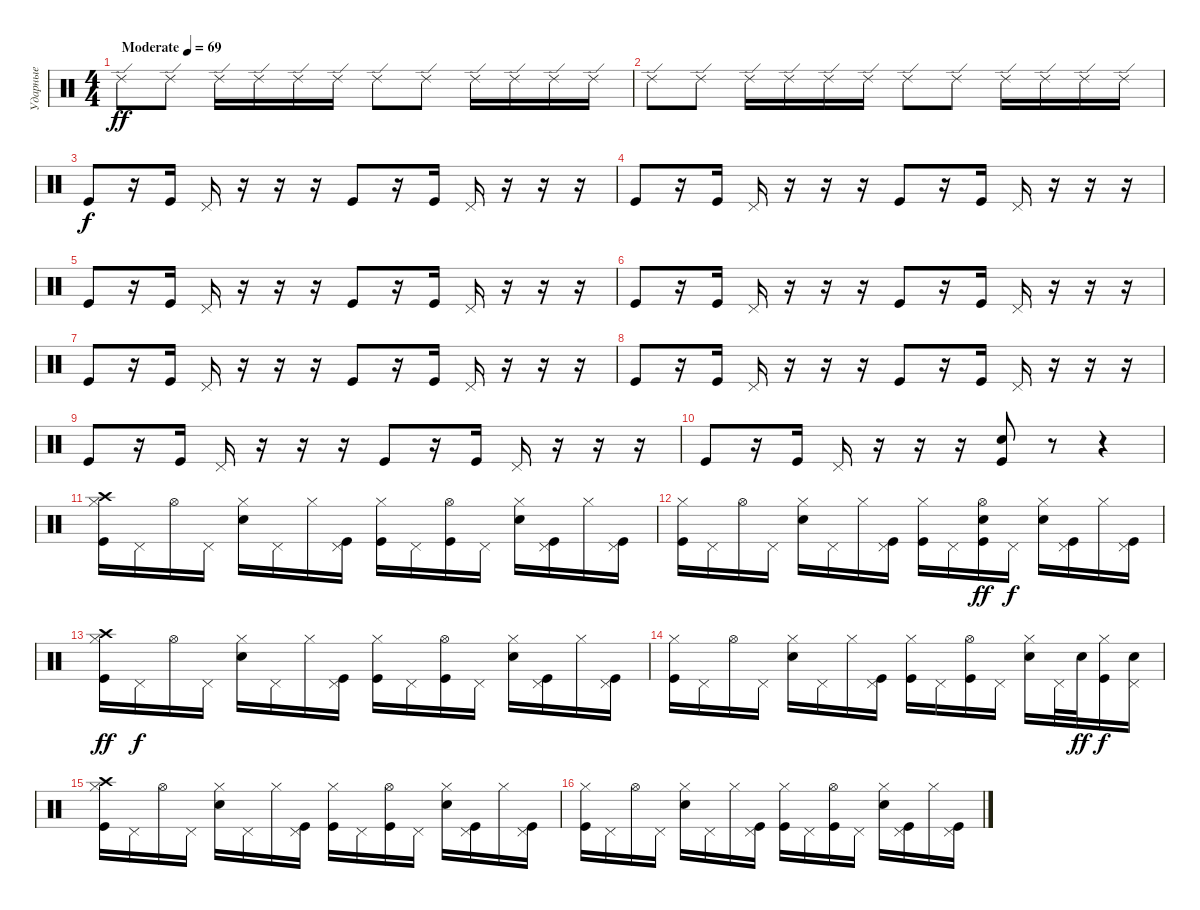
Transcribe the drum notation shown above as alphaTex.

\track ("Ударные" "Ударные") {instrument percussion}
\staff {score}
\articulation defaults
\ts (4 4)
\tempo (69 "Moderate")
\clef neutral
\ks c "Ride (edge) 2".8{dy ff} "Ride (edge) 2".8 "Ride (edge) 2".16 "Ride (edge) 2".16 "Ride (edge) 2".16 "Ride (edge) 2".16 "Ride (edge) 2".8 "Ride (edge) 2".8 "Ride (edge) 2".16 "Ride (edge) 2".16 "Ride (edge) 2".16 "Ride (edge) 2".16
|
"Ride (edge) 2".8 "Ride (edge) 2".8 "Ride (edge) 2".16 "Ride (edge) 2".16 "Ride (edge) 2".16 "Ride (edge) 2".16 "Ride (edge) 2".8 "Ride (edge) 2".8 "Ride (edge) 2".16 "Ride (edge) 2".16 "Ride (edge) 2".16 "Ride (edge) 2".16 |
"Kick (hit)".8{dy f} r.16 "Kick (hit)".16 "Pedal Hi-Hat (hit)".16 r.16 r.16 r.16 "Kick (hit)".8 r.16 "Kick (hit)".16 "Pedal Hi-Hat (hit)".16 r.16 r.16 r.16 |
"Kick (hit)".8 r.16 "Kick (hit)".16 "Pedal Hi-Hat (hit)".16 r.16 r.16 r.16 "Kick (hit)".8 r.16 "Kick (hit)".16 "Pedal Hi-Hat (hit)".16 r.16 r.16 r.16 |
"Kick (hit)".8 r.16 "Kick (hit)".16 "Pedal Hi-Hat (hit)".16 r.16 r.16 r.16 "Kick (hit)".8 r.16 "Kick (hit)".16 "Pedal Hi-Hat (hit)".16 r.16 r.16 r.16 |
"Kick (hit)".8 r.16 "Kick (hit)".16 "Pedal Hi-Hat (hit)".16 r.16 r.16 r.16 "Kick (hit)".8 r.16 "Kick (hit)".16 "Pedal Hi-Hat (hit)".16 r.16 r.16 r.16 |
"Kick (hit)".8 r.16 "Kick (hit)".16 "Pedal Hi-Hat (hit)".16 r.16 r.16 r.16 "Kick (hit)".8 r.16 "Kick (hit)".16 "Pedal Hi-Hat (hit)".16 r.16 r.16 r.16 |
"Kick (hit)".8 r.16 "Kick (hit)".16 "Pedal Hi-Hat (hit)".16 r.16 r.16 r.16 "Kick (hit)".8 r.16 "Kick (hit)".16 "Pedal Hi-Hat (hit)".16 r.16 r.16 r.16 |
"Kick (hit)".8 r.16 "Kick (hit)".16 "Pedal Hi-Hat (hit)".16 r.16 r.16 r.16 "Kick (hit)".8 r.16 "Kick (hit)".16 "Pedal Hi-Hat (hit)".16 r.16 r.16 r.16 |
"Kick (hit)".8 r.16 "Kick (hit)".16 "Pedal Hi-Hat (hit)".16 r.16 r.16 r.16 ("Snare (hit) 2" "Kick (hit)").8 r.8 r.4 |
("Kick (hit)" "Hi-Hat (closed)" "Crash high (hit)").16 "Pedal Hi-Hat (hit)".16 "Hi-Hat (open)".16 "Pedal Hi-Hat (hit)".16 ("Snare (hit) 2" "Hi-Hat (closed)").16 "Pedal Hi-Hat (hit)".16 "Hi-Hat (closed)".16 ("Pedal Hi-Hat (hit)" "Kick (hit)").16 ("Kick (hit)" "Hi-Hat (closed)").16 "Pedal Hi-Hat (hit)".16 ("Kick (hit)" "Hi-Hat (open)").16 "Pedal Hi-Hat (hit)".16 ("Snare (hit) 2" "Hi-Hat (closed)").16 ("Pedal Hi-Hat (hit)" "Kick (hit)").16 "Hi-Hat (closed)".16 ("Pedal Hi-Hat (hit)" "Kick (hit)").16 |
("Kick (hit)" "Hi-Hat (closed)").16 "Pedal Hi-Hat (hit)".16 "Hi-Hat (open)".16 "Pedal Hi-Hat (hit)".16 ("Snare (hit) 2" "Hi-Hat (closed)").16 "Pedal Hi-Hat (hit)".16 "Hi-Hat (closed)".16 ("Pedal Hi-Hat (hit)" "Kick (hit)").16 ("Kick (hit)" "Hi-Hat (closed)").16 "Pedal Hi-Hat (hit)".16 ("Kick (hit)" "Hi-Hat (open)" "Snare (hit) 2").16{dy ff} "Pedal Hi-Hat (hit)".16{dy f} ("Snare (hit) 2" "Hi-Hat (closed)").16 ("Pedal Hi-Hat (hit)" "Kick (hit)").16 "Hi-Hat (closed)".16 ("Pedal Hi-Hat (hit)" "Kick (hit)").16 |
("Kick (hit)" "Hi-Hat (closed)" "Crash high (hit)").16{dy ff} "Pedal Hi-Hat (hit)".16{dy f} "Hi-Hat (open)".16 "Pedal Hi-Hat (hit)".16 ("Snare (hit) 2" "Hi-Hat (closed)").16 "Pedal Hi-Hat (hit)".16 "Hi-Hat (closed)".16 ("Pedal Hi-Hat (hit)" "Kick (hit)").16 ("Kick (hit)" "Hi-Hat (closed)").16 "Pedal Hi-Hat (hit)".16 ("Kick (hit)" "Hi-Hat (open)").16 "Pedal Hi-Hat (hit)".16 ("Snare (hit) 2" "Hi-Hat (closed)").16 ("Pedal Hi-Hat (hit)" "Kick (hit)").16 "Hi-Hat (closed)".16 ("Pedal Hi-Hat (hit)" "Kick (hit)").16 |
("Kick (hit)" "Hi-Hat (closed)").16 "Pedal Hi-Hat (hit)".16 "Hi-Hat (open)".16 "Pedal Hi-Hat (hit)".16 ("Snare (hit) 2" "Hi-Hat (closed)").16 "Pedal Hi-Hat (hit)".16 "Hi-Hat (closed)".16 ("Pedal Hi-Hat (hit)" "Kick (hit)").16 ("Kick (hit)" "Hi-Hat (closed)").16 "Pedal Hi-Hat (hit)".16 ("Kick (hit)" "Hi-Hat (open)").16 "Pedal Hi-Hat (hit)".16 ("Snare (hit) 2" "Hi-Hat (closed)").16 "Pedal Hi-Hat (hit)".32 "Snare (hit) 2".32{dy ff} ("Hi-Hat (closed)" "Kick (hit)").16{dy f} ("Pedal Hi-Hat (hit)" "Snare (hit) 2").16 |
("Kick (hit)" "Hi-Hat (closed)" "Crash high (hit)").16 "Pedal Hi-Hat (hit)".16 "Hi-Hat (open)".16 "Pedal Hi-Hat (hit)".16 ("Snare (hit) 2" "Hi-Hat (closed)").16 "Pedal Hi-Hat (hit)".16 "Hi-Hat (closed)".16 ("Pedal Hi-Hat (hit)" "Kick (hit)").16 ("Kick (hit)" "Hi-Hat (closed)").16 "Pedal Hi-Hat (hit)".16 ("Kick (hit)" "Hi-Hat (open)").16 "Pedal Hi-Hat (hit)".16 ("Snare (hit) 2" "Hi-Hat (closed)").16 ("Pedal Hi-Hat (hit)" "Kick (hit)").16 "Hi-Hat (closed)".16 ("Pedal Hi-Hat (hit)" "Kick (hit)").16 |
("Kick (hit)" "Hi-Hat (closed)").16 "Pedal Hi-Hat (hit)".16 "Hi-Hat (open)".16 "Pedal Hi-Hat (hit)".16 ("Snare (hit) 2" "Hi-Hat (closed)").16 "Pedal Hi-Hat (hit)".16 "Hi-Hat (closed)".16 ("Pedal Hi-Hat (hit)" "Kick (hit)").16 ("Kick (hit)" "Hi-Hat (closed)").16 "Pedal Hi-Hat (hit)".16 ("Kick (hit)" "Hi-Hat (open)").16 "Pedal Hi-Hat (hit)".16 ("Snare (hit) 2" "Hi-Hat (closed)").16 ("Pedal Hi-Hat (hit)" "Kick (hit)").16 "Hi-Hat (closed)".16 ("Pedal Hi-Hat (hit)" "Kick (hit)").16
